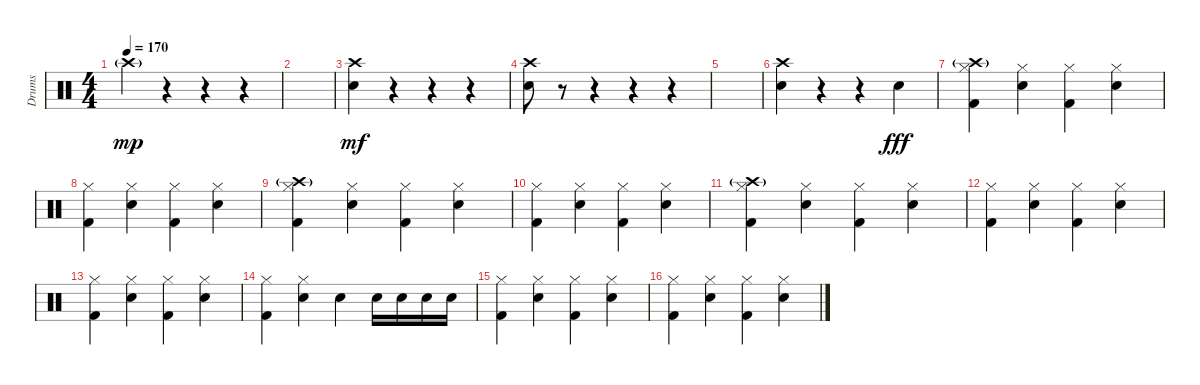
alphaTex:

\track ("Drums" "Drums") {instrument percussion}
\staff {score}
\articulation defaults
\ts (4 4)
\tempo 170
\clef neutral
\ks c "Crash high (hit)"{g}.4{dy mp}
r.4 r.4 r.4 |
|
("Crash high (hit)" "Electric Snare (hit)").4{dy mf} r.4 r.4 r.4 |
("Crash high (hit)" "Electric Snare (hit)").8 r.8 r.4 r.4 r.4 |
|
("Crash high (hit)" "Electric Snare (hit)").4 r.4 r.4 "Electric Snare (hit)".4{dy fff} |
("Crash high (hit)"{g} "Hi-Hat (closed)" "Kick (hit) 2").4 ("Hi-Hat (closed)" "Electric Snare (hit)").4 ("Hi-Hat (closed)" "Kick (hit) 2").4 ("Hi-Hat (closed)" "Electric Snare (hit)").4 |
("Hi-Hat (closed)" "Kick (hit) 2").4 ("Hi-Hat (closed)" "Electric Snare (hit)").4 ("Hi-Hat (closed)" "Kick (hit) 2").4 ("Hi-Hat (closed)" "Electric Snare (hit)").4 |
("Crash high (hit)"{g} "Hi-Hat (closed)" "Kick (hit) 2").4 ("Hi-Hat (closed)" "Electric Snare (hit)").4 ("Hi-Hat (closed)" "Kick (hit) 2").4 ("Hi-Hat (closed)" "Electric Snare (hit)").4 |
("Hi-Hat (closed)" "Kick (hit) 2").4 ("Hi-Hat (closed)" "Electric Snare (hit)").4 ("Hi-Hat (closed)" "Kick (hit) 2").4 ("Hi-Hat (closed)" "Electric Snare (hit)").4 |
("Crash high (hit)"{g} "Hi-Hat (closed)" "Kick (hit) 2").4 ("Hi-Hat (closed)" "Electric Snare (hit)").4 ("Hi-Hat (closed)" "Kick (hit) 2").4 ("Hi-Hat (closed)" "Electric Snare (hit)").4 |
("Hi-Hat (closed)" "Kick (hit) 2").4 ("Hi-Hat (closed)" "Electric Snare (hit)").4 ("Hi-Hat (closed)" "Kick (hit) 2").4 ("Hi-Hat (closed)" "Electric Snare (hit)").4 |
("Hi-Hat (closed)" "Kick (hit) 2").4 ("Hi-Hat (closed)" "Electric Snare (hit)").4 ("Hi-Hat (closed)" "Kick (hit) 2").4 ("Hi-Hat (closed)" "Electric Snare (hit)").4 |
("Hi-Hat (closed)" "Kick (hit) 2").4 ("Hi-Hat (closed)" "Electric Snare (hit)").4 "Electric Snare (hit)".4 "Electric Snare (hit)".16 "Electric Snare (hit)".16 "Electric Snare (hit)".16 "Electric Snare (hit)".16 |
("Hi-Hat (closed)" "Kick (hit) 2").4 ("Hi-Hat (closed)" "Electric Snare (hit)").4 ("Hi-Hat (closed)" "Kick (hit) 2").4 ("Hi-Hat (closed)" "Electric Snare (hit)").4 |
("Hi-Hat (closed)" "Kick (hit) 2").4 ("Hi-Hat (closed)" "Electric Snare (hit)").4 ("Hi-Hat (closed)" "Kick (hit) 2").4 ("Hi-Hat (closed)" "Electric Snare (hit)").4
